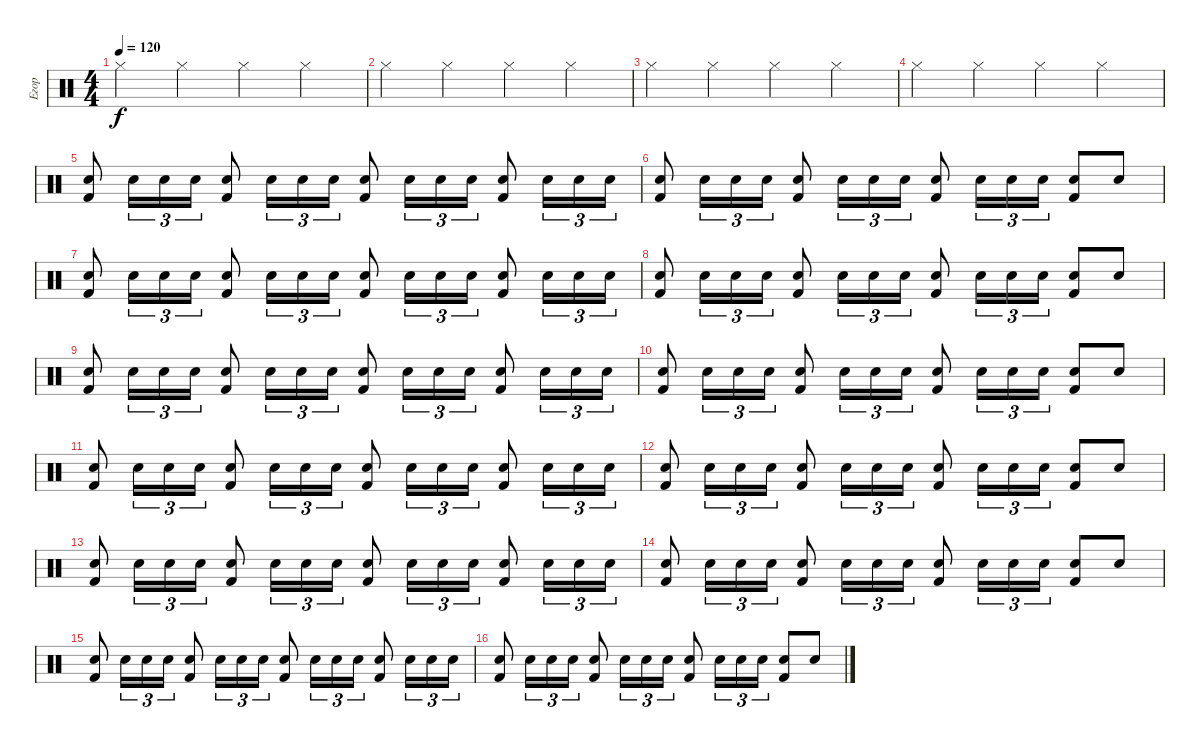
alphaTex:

\track ("Егор" "Егор") {instrument percussion}
\staff {score}
\articulation defaults
\ts (4 4)
\tempo 120
\clef neutral
\ks c "Hi-Hat (closed)".4{dy f} "Hi-Hat (closed)".4 "Hi-Hat (closed)".4 "Hi-Hat (closed)".4
|
"Hi-Hat (closed)".4 "Hi-Hat (closed)".4 "Hi-Hat (closed)".4 "Hi-Hat (closed)".4 |
"Hi-Hat (closed)".4 "Hi-Hat (closed)".4 "Hi-Hat (closed)".4 "Hi-Hat (closed)".4 |
"Hi-Hat (closed)".4 "Hi-Hat (closed)".4 "Hi-Hat (closed)".4 "Hi-Hat (closed)".4 |
("Snare (hit) 2" "Kick (hit) 2").8 "Snare (hit) 2".16{tu (3 2)} "Snare (hit) 2".16{tu (3 2)} "Snare (hit) 2".16{tu (3 2)} ("Snare (hit) 2" "Kick (hit) 2").8 "Snare (hit) 2".16{tu (3 2)} "Snare (hit) 2".16{tu (3 2)} "Snare (hit) 2".16{tu (3 2)} ("Snare (hit) 2" "Kick (hit) 2").8 "Snare (hit) 2".16{tu (3 2)} "Snare (hit) 2".16{tu (3 2)} "Snare (hit) 2".16{tu (3 2)} ("Snare (hit) 2" "Kick (hit) 2").8 "Snare (hit) 2".16{tu (3 2)} "Snare (hit) 2".16{tu (3 2)} "Snare (hit) 2".16{tu (3 2)} |
("Snare (hit) 2" "Kick (hit) 2").8 "Snare (hit) 2".16{tu (3 2)} "Snare (hit) 2".16{tu (3 2)} "Snare (hit) 2".16{tu (3 2)} ("Snare (hit) 2" "Kick (hit) 2").8 "Snare (hit) 2".16{tu (3 2)} "Snare (hit) 2".16{tu (3 2)} "Snare (hit) 2".16{tu (3 2)} ("Snare (hit) 2" "Kick (hit) 2").8 "Snare (hit) 2".16{tu (3 2)} "Snare (hit) 2".16{tu (3 2)} "Snare (hit) 2".16{tu (3 2)} ("Snare (hit) 2" "Kick (hit) 2").8 "Snare (hit) 2".8 |
("Snare (hit) 2" "Kick (hit) 2").8 "Snare (hit) 2".16{tu (3 2)} "Snare (hit) 2".16{tu (3 2)} "Snare (hit) 2".16{tu (3 2)} ("Snare (hit) 2" "Kick (hit) 2").8 "Snare (hit) 2".16{tu (3 2)} "Snare (hit) 2".16{tu (3 2)} "Snare (hit) 2".16{tu (3 2)} ("Snare (hit) 2" "Kick (hit) 2").8 "Snare (hit) 2".16{tu (3 2)} "Snare (hit) 2".16{tu (3 2)} "Snare (hit) 2".16{tu (3 2)} ("Snare (hit) 2" "Kick (hit) 2").8 "Snare (hit) 2".16{tu (3 2)} "Snare (hit) 2".16{tu (3 2)} "Snare (hit) 2".16{tu (3 2)} |
("Snare (hit) 2" "Kick (hit) 2").8 "Snare (hit) 2".16{tu (3 2)} "Snare (hit) 2".16{tu (3 2)} "Snare (hit) 2".16{tu (3 2)} ("Snare (hit) 2" "Kick (hit) 2").8 "Snare (hit) 2".16{tu (3 2)} "Snare (hit) 2".16{tu (3 2)} "Snare (hit) 2".16{tu (3 2)} ("Snare (hit) 2" "Kick (hit) 2").8 "Snare (hit) 2".16{tu (3 2)} "Snare (hit) 2".16{tu (3 2)} "Snare (hit) 2".16{tu (3 2)} ("Snare (hit) 2" "Kick (hit) 2").8 "Snare (hit) 2".8 |
("Snare (hit) 2" "Kick (hit) 2").8 "Snare (hit) 2".16{tu (3 2)} "Snare (hit) 2".16{tu (3 2)} "Snare (hit) 2".16{tu (3 2)} ("Snare (hit) 2" "Kick (hit) 2").8 "Snare (hit) 2".16{tu (3 2)} "Snare (hit) 2".16{tu (3 2)} "Snare (hit) 2".16{tu (3 2)} ("Snare (hit) 2" "Kick (hit) 2").8 "Snare (hit) 2".16{tu (3 2)} "Snare (hit) 2".16{tu (3 2)} "Snare (hit) 2".16{tu (3 2)} ("Snare (hit) 2" "Kick (hit) 2").8 "Snare (hit) 2".16{tu (3 2)} "Snare (hit) 2".16{tu (3 2)} "Snare (hit) 2".16{tu (3 2)} |
("Snare (hit) 2" "Kick (hit) 2").8 "Snare (hit) 2".16{tu (3 2)} "Snare (hit) 2".16{tu (3 2)} "Snare (hit) 2".16{tu (3 2)} ("Snare (hit) 2" "Kick (hit) 2").8 "Snare (hit) 2".16{tu (3 2)} "Snare (hit) 2".16{tu (3 2)} "Snare (hit) 2".16{tu (3 2)} ("Snare (hit) 2" "Kick (hit) 2").8 "Snare (hit) 2".16{tu (3 2)} "Snare (hit) 2".16{tu (3 2)} "Snare (hit) 2".16{tu (3 2)} ("Snare (hit) 2" "Kick (hit) 2").8 "Snare (hit) 2".8 |
("Snare (hit) 2" "Kick (hit) 2").8 "Snare (hit) 2".16{tu (3 2)} "Snare (hit) 2".16{tu (3 2)} "Snare (hit) 2".16{tu (3 2)} ("Snare (hit) 2" "Kick (hit) 2").8 "Snare (hit) 2".16{tu (3 2)} "Snare (hit) 2".16{tu (3 2)} "Snare (hit) 2".16{tu (3 2)} ("Snare (hit) 2" "Kick (hit) 2").8 "Snare (hit) 2".16{tu (3 2)} "Snare (hit) 2".16{tu (3 2)} "Snare (hit) 2".16{tu (3 2)} ("Snare (hit) 2" "Kick (hit) 2").8 "Snare (hit) 2".16{tu (3 2)} "Snare (hit) 2".16{tu (3 2)} "Snare (hit) 2".16{tu (3 2)} |
("Snare (hit) 2" "Kick (hit) 2").8 "Snare (hit) 2".16{tu (3 2)} "Snare (hit) 2".16{tu (3 2)} "Snare (hit) 2".16{tu (3 2)} ("Snare (hit) 2" "Kick (hit) 2").8 "Snare (hit) 2".16{tu (3 2)} "Snare (hit) 2".16{tu (3 2)} "Snare (hit) 2".16{tu (3 2)} ("Snare (hit) 2" "Kick (hit) 2").8 "Snare (hit) 2".16{tu (3 2)} "Snare (hit) 2".16{tu (3 2)} "Snare (hit) 2".16{tu (3 2)} ("Snare (hit) 2" "Kick (hit) 2").8 "Snare (hit) 2".8 |
("Snare (hit) 2" "Kick (hit) 2").8 "Snare (hit) 2".16{tu (3 2)} "Snare (hit) 2".16{tu (3 2)} "Snare (hit) 2".16{tu (3 2)} ("Snare (hit) 2" "Kick (hit) 2").8 "Snare (hit) 2".16{tu (3 2)} "Snare (hit) 2".16{tu (3 2)} "Snare (hit) 2".16{tu (3 2)} ("Snare (hit) 2" "Kick (hit) 2").8 "Snare (hit) 2".16{tu (3 2)} "Snare (hit) 2".16{tu (3 2)} "Snare (hit) 2".16{tu (3 2)} ("Snare (hit) 2" "Kick (hit) 2").8 "Snare (hit) 2".16{tu (3 2)} "Snare (hit) 2".16{tu (3 2)} "Snare (hit) 2".16{tu (3 2)} |
("Snare (hit) 2" "Kick (hit) 2").8 "Snare (hit) 2".16{tu (3 2)} "Snare (hit) 2".16{tu (3 2)} "Snare (hit) 2".16{tu (3 2)} ("Snare (hit) 2" "Kick (hit) 2").8 "Snare (hit) 2".16{tu (3 2)} "Snare (hit) 2".16{tu (3 2)} "Snare (hit) 2".16{tu (3 2)} ("Snare (hit) 2" "Kick (hit) 2").8 "Snare (hit) 2".16{tu (3 2)} "Snare (hit) 2".16{tu (3 2)} "Snare (hit) 2".16{tu (3 2)} ("Snare (hit) 2" "Kick (hit) 2").8 "Snare (hit) 2".8 |
("Snare (hit) 2" "Kick (hit) 2").8 "Snare (hit) 2".16{tu (3 2)} "Snare (hit) 2".16{tu (3 2)} "Snare (hit) 2".16{tu (3 2)} ("Snare (hit) 2" "Kick (hit) 2").8 "Snare (hit) 2".16{tu (3 2)} "Snare (hit) 2".16{tu (3 2)} "Snare (hit) 2".16{tu (3 2)} ("Snare (hit) 2" "Kick (hit) 2").8 "Snare (hit) 2".16{tu (3 2)} "Snare (hit) 2".16{tu (3 2)} "Snare (hit) 2".16{tu (3 2)} ("Snare (hit) 2" "Kick (hit) 2").8 "Snare (hit) 2".16{tu (3 2)} "Snare (hit) 2".16{tu (3 2)} "Snare (hit) 2".16{tu (3 2)} |
("Snare (hit) 2" "Kick (hit) 2").8 "Snare (hit) 2".16{tu (3 2)} "Snare (hit) 2".16{tu (3 2)} "Snare (hit) 2".16{tu (3 2)} ("Snare (hit) 2" "Kick (hit) 2").8 "Snare (hit) 2".16{tu (3 2)} "Snare (hit) 2".16{tu (3 2)} "Snare (hit) 2".16{tu (3 2)} ("Snare (hit) 2" "Kick (hit) 2").8 "Snare (hit) 2".16{tu (3 2)} "Snare (hit) 2".16{tu (3 2)} "Snare (hit) 2".16{tu (3 2)} ("Snare (hit) 2" "Kick (hit) 2").8 "Snare (hit) 2".8
